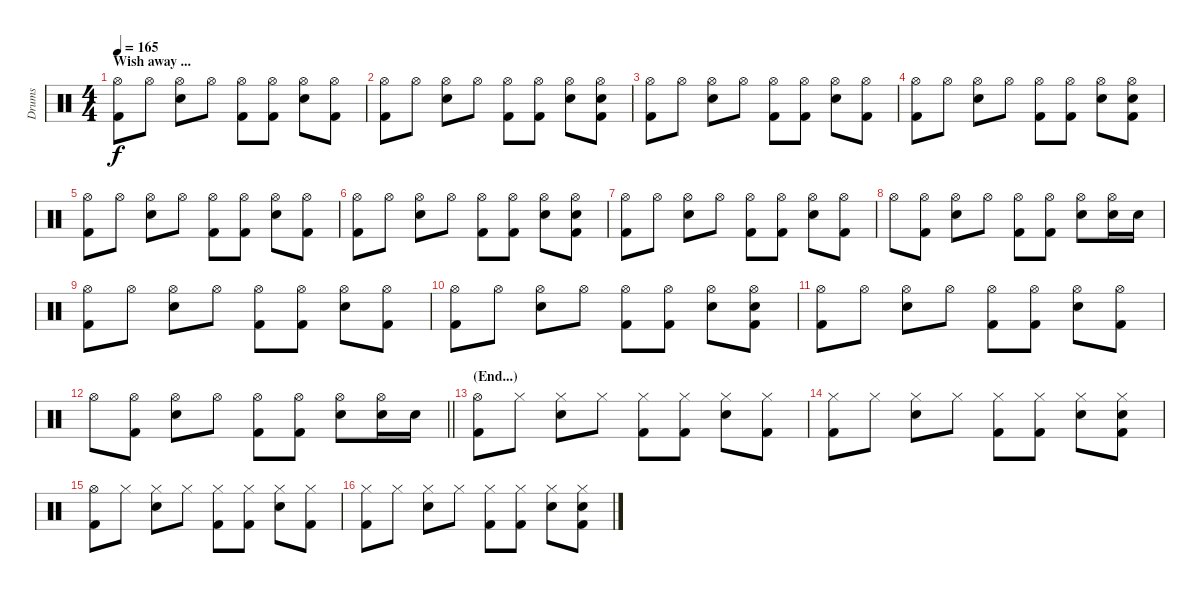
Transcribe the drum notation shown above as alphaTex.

\track ("Drums" "Drums") {instrument percussion}
\staff {score}
\articulation defaults
\ts (4 4)
\section ("" "Wish away ...")
\tempo 165
\clef neutral
\ks c
("Hi-Hat (open)" "Kick (hit) 2").8{dy f} "Hi-Hat (open)".8 ("Hi-Hat (open)" "Electric Snare (hit)").8 "Hi-Hat (open)".8 ("Hi-Hat (open)" "Kick (hit) 2").8 ("Hi-Hat (open)" "Kick (hit) 2").8 ("Hi-Hat (open)" "Electric Snare (hit)").8 ("Hi-Hat (open)" "Kick (hit) 2").8 |
("Hi-Hat (open)" "Kick (hit) 2").8 "Hi-Hat (open)".8 ("Hi-Hat (open)" "Electric Snare (hit)").8 "Hi-Hat (open)".8 ("Hi-Hat (open)" "Kick (hit) 2").8 ("Hi-Hat (open)" "Kick (hit) 2").8 ("Hi-Hat (open)" "Electric Snare (hit)").8 ("Hi-Hat (open)" "Electric Snare (hit)" "Kick (hit) 2").8 |
("Hi-Hat (open)" "Kick (hit) 2").8 "Hi-Hat (open)".8 ("Hi-Hat (open)" "Electric Snare (hit)").8 "Hi-Hat (open)".8 ("Hi-Hat (open)" "Kick (hit) 2").8 ("Hi-Hat (open)" "Kick (hit) 2").8 ("Hi-Hat (open)" "Electric Snare (hit)").8 ("Hi-Hat (open)" "Kick (hit) 2").8 |
("Hi-Hat (open)" "Kick (hit) 2").8 "Hi-Hat (open)".8 ("Hi-Hat (open)" "Electric Snare (hit)").8 "Hi-Hat (open)".8 ("Hi-Hat (open)" "Kick (hit) 2").8 ("Hi-Hat (open)" "Kick (hit) 2").8 ("Hi-Hat (open)" "Electric Snare (hit)").8 ("Hi-Hat (open)" "Electric Snare (hit)" "Kick (hit) 2").8 |
("Hi-Hat (open)" "Kick (hit) 2").8 "Hi-Hat (open)".8 ("Hi-Hat (open)" "Electric Snare (hit)").8 "Hi-Hat (open)".8 ("Hi-Hat (open)" "Kick (hit) 2").8 ("Hi-Hat (open)" "Kick (hit) 2").8 ("Hi-Hat (open)" "Electric Snare (hit)").8 ("Hi-Hat (open)" "Kick (hit) 2").8 |
("Hi-Hat (open)" "Kick (hit) 2").8 "Hi-Hat (open)".8 ("Hi-Hat (open)" "Electric Snare (hit)").8 "Hi-Hat (open)".8 ("Hi-Hat (open)" "Kick (hit) 2").8 ("Hi-Hat (open)" "Kick (hit) 2").8 ("Hi-Hat (open)" "Electric Snare (hit)").8 ("Hi-Hat (open)" "Electric Snare (hit)" "Kick (hit) 2").8 |
("Hi-Hat (open)" "Kick (hit) 2").8 "Hi-Hat (open)".8 ("Hi-Hat (open)" "Electric Snare (hit)").8 "Hi-Hat (open)".8 ("Hi-Hat (open)" "Kick (hit) 2").8 ("Hi-Hat (open)" "Kick (hit) 2").8 ("Hi-Hat (open)" "Electric Snare (hit)").8 ("Hi-Hat (open)" "Kick (hit) 2").8 |
"Hi-Hat (open)".8 ("Hi-Hat (open)" "Kick (hit) 2").8 ("Hi-Hat (open)" "Electric Snare (hit)").8 "Hi-Hat (open)".8 ("Hi-Hat (open)" "Kick (hit) 2").8 ("Hi-Hat (open)" "Kick (hit) 2").8 ("Hi-Hat (open)" "Electric Snare (hit)").8 ("Hi-Hat (open)" "Electric Snare (hit)").16 "Electric Snare (hit)".16 |
("Hi-Hat (open)" "Kick (hit) 2").8 "Hi-Hat (open)".8 ("Hi-Hat (open)" "Electric Snare (hit)").8 "Hi-Hat (open)".8 ("Hi-Hat (open)" "Kick (hit) 2").8 ("Hi-Hat (open)" "Kick (hit) 2").8 ("Hi-Hat (open)" "Electric Snare (hit)").8 ("Hi-Hat (open)" "Kick (hit) 2").8 |
("Hi-Hat (open)" "Kick (hit) 2").8 "Hi-Hat (open)".8 ("Hi-Hat (open)" "Electric Snare (hit)").8 "Hi-Hat (open)".8 ("Hi-Hat (open)" "Kick (hit) 2").8 ("Hi-Hat (open)" "Kick (hit) 2").8 ("Hi-Hat (open)" "Electric Snare (hit)").8 ("Hi-Hat (open)" "Electric Snare (hit)" "Kick (hit) 2").8 |
("Hi-Hat (open)" "Kick (hit) 2").8 "Hi-Hat (open)".8 ("Hi-Hat (open)" "Electric Snare (hit)").8 "Hi-Hat (open)".8 ("Hi-Hat (open)" "Kick (hit) 2").8 ("Hi-Hat (open)" "Kick (hit) 2").8 ("Hi-Hat (open)" "Electric Snare (hit)").8 ("Hi-Hat (open)" "Kick (hit) 2").8 |
\barLineRight lightlight "Hi-Hat (open)".8
("Hi-Hat (open)" "Kick (hit) 2").8 ("Hi-Hat (open)" "Electric Snare (hit)").8 "Hi-Hat (open)".8 ("Hi-Hat (open)" "Kick (hit) 2").8 ("Hi-Hat (open)" "Kick (hit) 2").8 ("Hi-Hat (open)" "Electric Snare (hit)").8 ("Hi-Hat (open)" "Electric Snare (hit)").16 "Electric Snare (hit)".16 |
\section ("" "(End...)")
("Hi-Hat (open)" "Kick (hit) 2").8 "Hi-Hat (closed)".8 ("Hi-Hat (closed)" "Electric Snare (hit)").8 "Hi-Hat (closed)".8 ("Hi-Hat (closed)" "Kick (hit) 2").8 ("Hi-Hat (closed)" "Kick (hit) 2").8 ("Hi-Hat (closed)" "Electric Snare (hit)").8 ("Hi-Hat (closed)" "Kick (hit) 2").8 |
("Hi-Hat (closed)" "Kick (hit) 2").8 "Hi-Hat (closed)".8 ("Hi-Hat (closed)" "Electric Snare (hit)").8 "Hi-Hat (closed)".8 ("Hi-Hat (closed)" "Kick (hit) 2").8 ("Hi-Hat (closed)" "Kick (hit) 2").8 ("Hi-Hat (closed)" "Electric Snare (hit)").8 ("Hi-Hat (closed)" "Electric Snare (hit)" "Kick (hit) 2").8 |
("Hi-Hat (open)" "Kick (hit) 2").8 "Hi-Hat (closed)".8 ("Hi-Hat (closed)" "Electric Snare (hit)").8 "Hi-Hat (closed)".8 ("Hi-Hat (closed)" "Kick (hit) 2").8 ("Hi-Hat (closed)" "Kick (hit) 2").8 ("Hi-Hat (closed)" "Electric Snare (hit)").8 ("Hi-Hat (closed)" "Kick (hit) 2").8 |
("Hi-Hat (closed)" "Kick (hit) 2").8 "Hi-Hat (closed)".8 ("Hi-Hat (closed)" "Electric Snare (hit)").8 "Hi-Hat (closed)".8 ("Hi-Hat (closed)" "Kick (hit) 2").8 ("Hi-Hat (closed)" "Kick (hit) 2").8 ("Hi-Hat (closed)" "Electric Snare (hit)").8 ("Hi-Hat (closed)" "Electric Snare (hit)" "Kick (hit) 2").8
